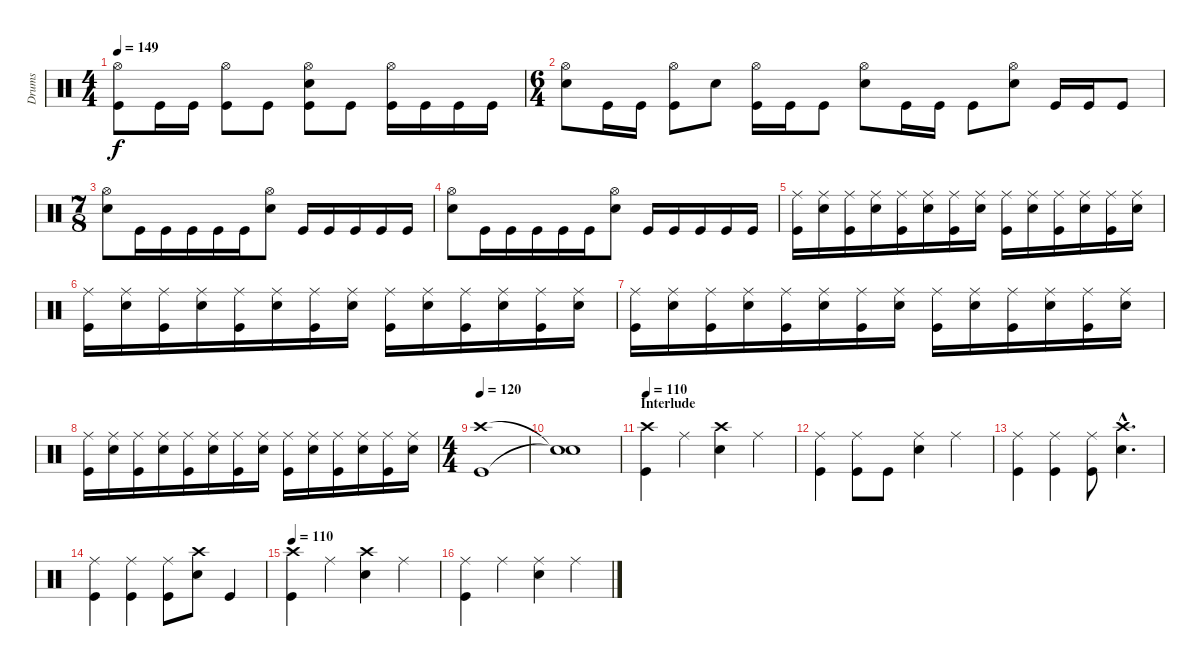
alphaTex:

\track ("Drums" "Drums") {instrument percussion}
\staff {score}
\articulation defaults
\ts (4 4)
\tempo 149
\clef neutral
\ks c
("Hi-Hat (open)" "Kick (hit)").8{dy f} "Kick (hit)".16 "Kick (hit)".16 ("Hi-Hat (open)" "Kick (hit)").8 "Kick (hit)".8 ("Hi-Hat (open)" "Snare (hit) 2" "Kick (hit)").8 "Kick (hit)".8 ("Hi-Hat (open)" "Kick (hit)").16 "Kick (hit)".16 "Kick (hit)".16 "Kick (hit)".16 |
\ts (6 4)
("Hi-Hat (open)" "Snare (hit) 2").8 "Kick (hit)".16 "Kick (hit)".16 ("Hi-Hat (open)" "Kick (hit)").8 "Snare (hit) 2".8 ("Hi-Hat (open)" "Kick (hit)").16 "Kick (hit)".16 "Kick (hit)".8 ("Hi-Hat (open)" "Snare (hit) 2").8 "Kick (hit)".16 "Kick (hit)".16 "Kick (hit)".8 ("Hi-Hat (open)" "Snare (hit) 2").8 "Kick (hit)".16 "Kick (hit)".16 "Kick (hit)".8 |
\ts (7 8)
("Hi-Hat (open)" "Snare (hit) 2").8 "Kick (hit)".16 "Kick (hit)".16 "Kick (hit)".16 "Kick (hit)".16 "Kick (hit)".16 ("Hi-Hat (open)" "Snare (hit) 2").8 "Kick (hit)".16 "Kick (hit)".16 "Kick (hit)".16 "Kick (hit)".16 "Kick (hit)".16 |
("Hi-Hat (open)" "Snare (hit) 2").8 "Kick (hit)".16 "Kick (hit)".16 "Kick (hit)".16 "Kick (hit)".16 "Kick (hit)".16 ("Hi-Hat (open)" "Snare (hit) 2").8 "Kick (hit)".16 "Kick (hit)".16 "Kick (hit)".16 "Kick (hit)".16 "Kick (hit)".16 |
("Ride (middle)" "Kick (hit)").16 ("Ride (middle)" "Snare (hit) 2").16 ("Ride (middle)" "Kick (hit)").16 ("Ride (middle)" "Snare (hit) 2").16 ("Ride (middle)" "Kick (hit)").16 ("Ride (middle)" "Snare (hit) 2").16 ("Ride (middle)" "Kick (hit)").16 ("Ride (middle)" "Snare (hit) 2").16 ("Ride (middle)" "Kick (hit)").16 ("Ride (middle)" "Snare (hit) 2").16 ("Ride (middle)" "Kick (hit)").16 ("Ride (middle)" "Snare (hit) 2").16 ("Ride (middle)" "Kick (hit)").16 ("Ride (middle)" "Snare (hit) 2").16 |
("Ride (middle)" "Kick (hit)").16 ("Ride (middle)" "Snare (hit) 2").16 ("Ride (middle)" "Kick (hit)").16 ("Ride (middle)" "Snare (hit) 2").16 ("Ride (middle)" "Kick (hit)").16 ("Ride (middle)" "Snare (hit) 2").16 ("Ride (middle)" "Kick (hit)").16 ("Ride (middle)" "Snare (hit) 2").16 ("Ride (middle)" "Kick (hit)").16 ("Ride (middle)" "Snare (hit) 2").16 ("Ride (middle)" "Kick (hit)").16 ("Ride (middle)" "Snare (hit) 2").16 ("Ride (middle)" "Kick (hit)").16 ("Ride (middle)" "Snare (hit) 2").16 |
("Ride (middle)" "Kick (hit)").16 ("Ride (middle)" "Snare (hit) 2").16 ("Ride (middle)" "Kick (hit)").16 ("Ride (middle)" "Snare (hit) 2").16 ("Ride (middle)" "Kick (hit)").16 ("Ride (middle)" "Snare (hit) 2").16 ("Ride (middle)" "Kick (hit)").16 ("Ride (middle)" "Snare (hit) 2").16 ("Ride (middle)" "Kick (hit)").16 ("Ride (middle)" "Snare (hit) 2").16 ("Ride (middle)" "Kick (hit)").16 ("Ride (middle)" "Snare (hit) 2").16 ("Ride (middle)" "Kick (hit)").16 ("Ride (middle)" "Snare (hit) 2").16 |
("Ride (middle)" "Kick (hit)").16 ("Ride (middle)" "Snare (hit) 2").16 ("Ride (middle)" "Kick (hit)").16 ("Ride (middle)" "Snare (hit) 2").16 ("Ride (middle)" "Kick (hit)").16 ("Ride (middle)" "Snare (hit) 2").16 ("Ride (middle)" "Kick (hit)").16 ("Ride (middle)" "Snare (hit) 2").16 ("Ride (middle)" "Kick (hit)").16 ("Ride (middle)" "Snare (hit) 2").16 ("Ride (middle)" "Kick (hit)").16 ("Ride (middle)" "Snare (hit) 2").16 ("Ride (middle)" "Kick (hit)").16 ("Ride (middle)" "Snare (hit) 2").16 |
\ts (4 4)
\tempo 120
("Crash high (hit)" "Kick (hit)").1 |
("Snare (hit)"{t} "Snare (hit)"{t}).1 |
\section ("" "Interlude")
\tempo 110
("Crash high (hit)" "Kick (hit)").4 "Ride (middle)".4 ("Crash high (hit)" "Snare (hit) 2").4 "Ride (middle)".4 |
("Ride (middle)" "Kick (hit)").4 ("Ride (middle)" "Kick (hit)").8 "Kick (hit)".8 ("Ride (middle)" "Snare (hit) 2").4 "Ride (middle)".4 |
("Ride (middle)" "Kick (hit)").4 ("Ride (middle)" "Kick (hit)").4 ("Ride (middle)" "Kick (hit)").8 ("Crash high (hit)"{hac} "Snare (hit) 2"{hac}).4{d} |
("Ride (middle)" "Kick (hit)").4 ("Ride (middle)" "Kick (hit)").4 ("Ride (middle)" "Kick (hit)").8 ("Crash high (hit)" "Snare (hit) 2").8 "Kick (hit)".4 |
\tempo 110
("Crash high (hit)" "Kick (hit)").4 "Ride (middle)".4 ("Crash high (hit)" "Snare (hit) 2").4 "Ride (middle)".4 |
("Ride (middle)" "Kick (hit)").4 "Ride (middle)".4 ("Ride (middle)" "Snare (hit) 2").4 "Ride (middle)".4
